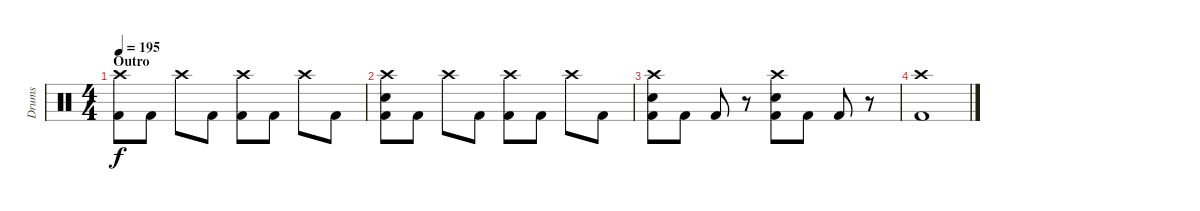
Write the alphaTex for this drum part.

\track ("Drums" "Drums") {instrument percussion}
\staff {score}
\articulation defaults
\ts (4 4)
\section ("" "Outro")
\tempo 195
\clef neutral
\ks c
("Crash high (hit)" "Kick (hit) 2").8{dy f} "Kick (hit) 2".8 "Crash high (hit)".8 "Kick (hit) 2".8 ("Crash high (hit)" "Kick (hit) 2").8 "Kick (hit) 2".8 "Crash high (hit)".8 "Kick (hit) 2".8 |
("Crash high (hit)" "Electric Snare (hit)" "Kick (hit) 2").8 "Kick (hit) 2".8 "Crash high (hit)".8 "Kick (hit) 2".8 ("Crash high (hit)" "Kick (hit) 2").8 "Kick (hit) 2".8 "Crash high (hit)".8 "Kick (hit) 2".8 |
("Crash high (hit)" "Electric Snare (hit)" "Kick (hit) 2").8 "Kick (hit) 2".8 "Kick (hit) 2".8 r.8 ("Crash high (hit)" "Electric Snare (hit)" "Kick (hit) 2").8 "Kick (hit) 2".8 "Kick (hit) 2".8 r.8 |
("Crash high (hit)" "Kick (hit) 2").1
